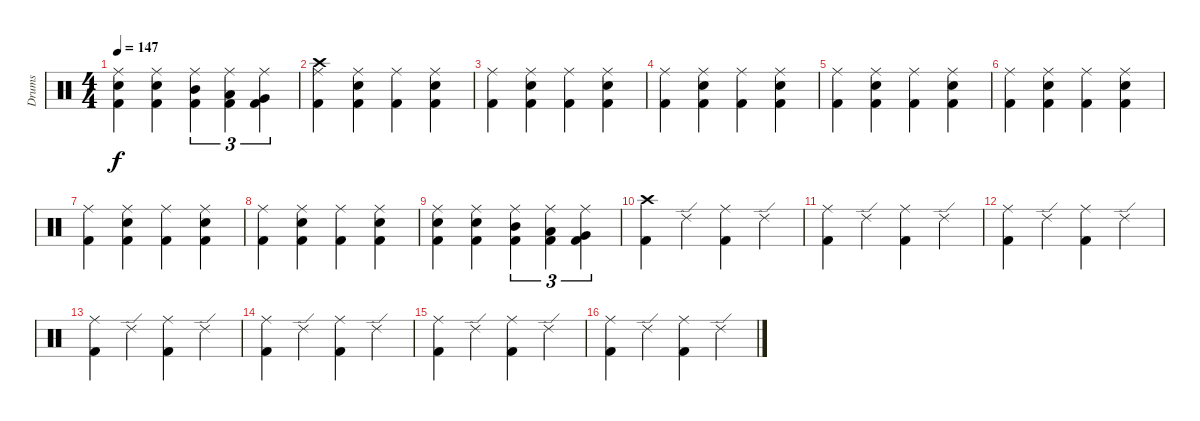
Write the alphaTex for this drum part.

\track ("Drums" "Drums") {instrument percussion}
\staff {score}
\articulation defaults
\ts (4 4)
\tempo 147
\clef neutral
\ks c
("Ride (middle)" "Electric Snare (hit)" "Kick (hit) 2").4{dy f} ("Ride (middle)" "Snare (hit) 2" "Kick (hit) 2").4 ("Ride (middle)" "Mid Tom (hit)" "Kick (hit) 2").4{tu (3 2)} ("Ride (middle)" "Low Tom (hit)" "Kick (hit) 2").4{tu (3 2)} ("Ride (middle)" "Very Low Tom (hit)" "Kick (hit) 2").4{tu (3 2)} |
("Crash high (hit)" "Ride (middle)" "Kick (hit) 2").4 ("Ride (middle)" "Electric Snare (hit)" "Kick (hit) 2").4 ("Ride (middle)" "Kick (hit) 2").4 ("Ride (middle)" "Electric Snare (hit)" "Kick (hit) 2").4 |
("Ride (middle)" "Kick (hit) 2").4 ("Ride (middle)" "Electric Snare (hit)" "Kick (hit) 2").4 ("Ride (middle)" "Kick (hit) 2").4 ("Ride (middle)" "Electric Snare (hit)" "Kick (hit) 2").4 |
("Ride (middle)" "Kick (hit) 2").4 ("Ride (middle)" "Electric Snare (hit)" "Kick (hit) 2").4 ("Ride (middle)" "Kick (hit) 2").4 ("Ride (middle)" "Electric Snare (hit)" "Kick (hit) 2").4 |
("Ride (middle)" "Kick (hit) 2").4 ("Ride (middle)" "Electric Snare (hit)" "Kick (hit) 2").4 ("Ride (middle)" "Kick (hit) 2").4 ("Ride (middle)" "Electric Snare (hit)" "Kick (hit) 2").4 |
("Ride (middle)" "Kick (hit) 2").4 ("Ride (middle)" "Electric Snare (hit)" "Kick (hit) 2").4 ("Ride (middle)" "Kick (hit) 2").4 ("Ride (middle)" "Electric Snare (hit)" "Kick (hit) 2").4 |
("Ride (middle)" "Kick (hit) 2").4 ("Ride (middle)" "Electric Snare (hit)" "Kick (hit) 2").4 ("Ride (middle)" "Kick (hit) 2").4 ("Ride (middle)" "Electric Snare (hit)" "Kick (hit) 2").4 |
("Ride (middle)" "Kick (hit) 2").4 ("Ride (middle)" "Electric Snare (hit)" "Kick (hit) 2").4 ("Ride (middle)" "Kick (hit) 2").4 ("Ride (middle)" "Electric Snare (hit)" "Kick (hit) 2").4 |
("Ride (middle)" "Electric Snare (hit)" "Kick (hit) 2").4 ("Ride (middle)" "Snare (hit) 2" "Kick (hit) 2").4 ("Ride (middle)" "Mid Tom (hit)" "Kick (hit) 2").4{tu (3 2)} ("Ride (middle)" "Low Tom (hit)" "Kick (hit) 2").4{tu (3 2)} ("Ride (middle)" "Very Low Tom (hit)" "Kick (hit) 2").4{tu (3 2)} |
("Crash high (hit)" "Kick (hit) 2").4 "Ride (edge) 2".4 ("Ride (middle)" "Kick (hit) 2").4 "Ride (edge) 2".4 |
("Ride (middle)" "Kick (hit) 2").4 "Ride (edge) 2".4 ("Ride (middle)" "Kick (hit) 2").4 "Ride (edge) 2".4 |
("Ride (middle)" "Kick (hit) 2").4 "Ride (edge) 2".4 ("Ride (middle)" "Kick (hit) 2").4 "Ride (edge) 2".4 |
("Ride (middle)" "Kick (hit) 2").4 "Ride (edge) 2".4 ("Ride (middle)" "Kick (hit) 2").4 "Ride (edge) 2".4 |
("Ride (middle)" "Kick (hit) 2").4 "Ride (edge) 2".4 ("Ride (middle)" "Kick (hit) 2").4 "Ride (edge) 2".4 |
("Ride (middle)" "Kick (hit) 2").4 "Ride (edge) 2".4 ("Ride (middle)" "Kick (hit) 2").4 "Ride (edge) 2".4 |
("Ride (middle)" "Kick (hit) 2").4 "Ride (edge) 2".4 ("Ride (middle)" "Kick (hit) 2").4 "Ride (edge) 2".4
